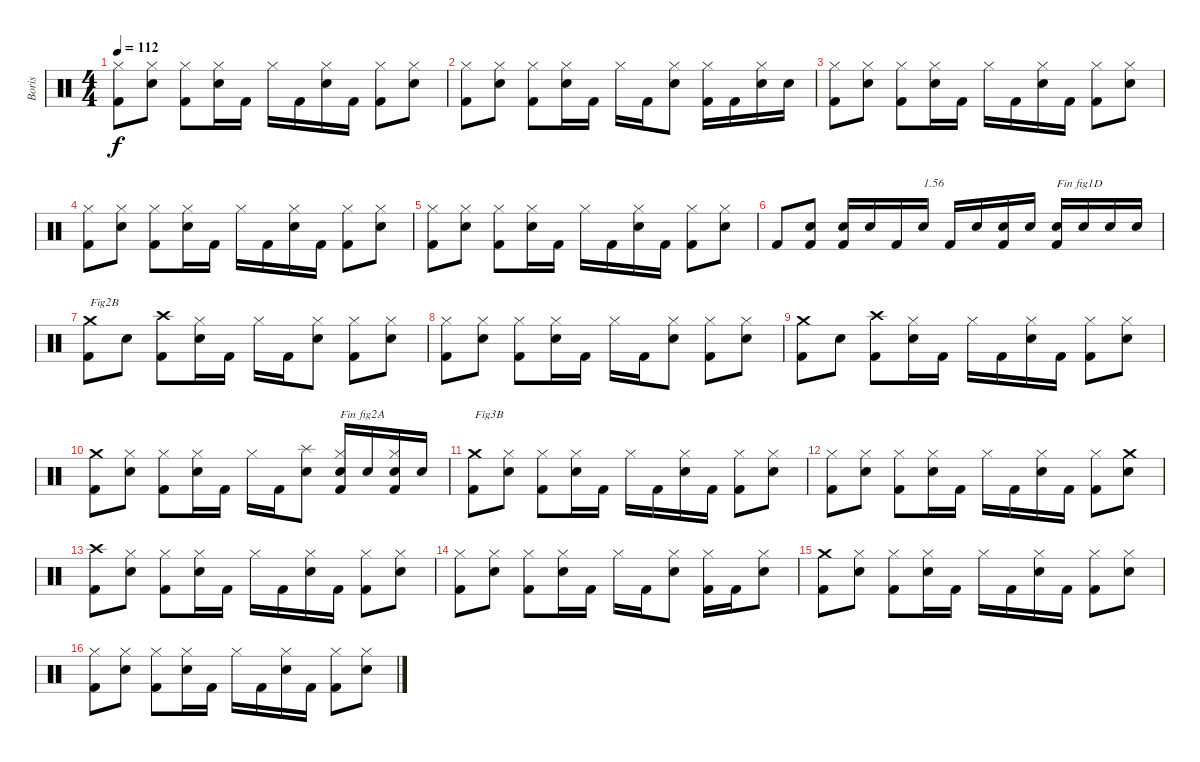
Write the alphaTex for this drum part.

\track ("Boris" "Boris") {instrument percussion}
\staff {score}
\articulation defaults
\ts (4 4)
\tempo 112
\clef neutral
\ks c
("Kick (hit) 2" "Hi-Hat (closed)").8{dy f} ("Electric Snare (hit)" "Hi-Hat (closed)").8 ("Kick (hit) 2" "Hi-Hat (closed)").8 ("Electric Snare (hit)" "Hi-Hat (closed)").16 "Kick (hit) 2".16 "Hi-Hat (closed)".16 "Kick (hit) 2".16 ("Electric Snare (hit)" "Hi-Hat (closed)").16 "Kick (hit) 2".16 ("Kick (hit) 2" "Hi-Hat (closed)").8 ("Electric Snare (hit)" "Hi-Hat (closed)").8 |
("Kick (hit) 2" "Hi-Hat (closed)").8 ("Electric Snare (hit)" "Hi-Hat (closed)").8 ("Kick (hit) 2" "Hi-Hat (closed)").8 ("Electric Snare (hit)" "Hi-Hat (closed)").16 "Kick (hit) 2".16 "Hi-Hat (closed)".16 "Kick (hit) 2".16 ("Electric Snare (hit)" "Hi-Hat (closed)").8 ("Kick (hit) 2" "Hi-Hat (closed)").16 "Kick (hit) 2".16 ("Electric Snare (hit)" "Hi-Hat (closed)").16 "Electric Snare (hit)".16 |
("Kick (hit) 2" "Hi-Hat (closed)").8 ("Electric Snare (hit)" "Hi-Hat (closed)").8 ("Kick (hit) 2" "Hi-Hat (closed)").8 ("Electric Snare (hit)" "Hi-Hat (closed)").16 "Kick (hit) 2".16 "Hi-Hat (closed)".16 "Kick (hit) 2".16 ("Electric Snare (hit)" "Hi-Hat (closed)").16 "Kick (hit) 2".16 ("Kick (hit) 2" "Hi-Hat (closed)").8 ("Electric Snare (hit)" "Hi-Hat (closed)").8 |
("Kick (hit) 2" "Hi-Hat (closed)").8 ("Electric Snare (hit)" "Hi-Hat (closed)").8 ("Kick (hit) 2" "Hi-Hat (closed)").8 ("Electric Snare (hit)" "Hi-Hat (closed)").16 "Kick (hit) 2".16 "Hi-Hat (closed)".16 "Kick (hit) 2".16 ("Electric Snare (hit)" "Hi-Hat (closed)").16 "Kick (hit) 2".16 ("Kick (hit) 2" "Hi-Hat (closed)").8 ("Electric Snare (hit)" "Hi-Hat (closed)").8 |
("Kick (hit) 2" "Hi-Hat (closed)").8 ("Electric Snare (hit)" "Hi-Hat (closed)").8 ("Kick (hit) 2" "Hi-Hat (closed)").8 ("Electric Snare (hit)" "Hi-Hat (closed)").16 "Kick (hit) 2".16 "Hi-Hat (closed)".16 "Kick (hit) 2".16 ("Electric Snare (hit)" "Hi-Hat (closed)").16 "Kick (hit) 2".16 ("Kick (hit) 2" "Hi-Hat (closed)").8 ("Electric Snare (hit)" "Hi-Hat (closed)").8 |
"Kick (hit) 2".8 ("Kick (hit) 2" "Electric Snare (hit)").8 ("Kick (hit) 2" "Electric Snare (hit)").16 "Electric Snare (hit)".16 "Kick (hit) 2".16 "Electric Snare (hit)".16{txt "1.56"} "Kick (hit) 2".16 "Electric Snare (hit)".16 ("Kick (hit) 2" "Electric Snare (hit)").16 "Electric Snare (hit)".16 ("Kick (hit) 2" "Electric Snare (hit)").16{txt "Fin fig1D"} "Electric Snare (hit)".16 "Electric Snare (hit)".16 "Electric Snare (hit)".16 |
("Kick (hit) 2" "Crash medium (hit)").8{txt "Fig2B"} "Electric Snare (hit)".8 ("Kick (hit) 2" "Crash high (hit)").8 ("Electric Snare (hit)" "Hi-Hat (closed)").16 "Kick (hit) 2".16 "Hi-Hat (closed)".16 "Kick (hit) 2".16 ("Electric Snare (hit)" "Hi-Hat (closed)").8 ("Kick (hit) 2" "Hi-Hat (closed)").8 ("Electric Snare (hit)" "Hi-Hat (closed)").8 |
("Kick (hit) 2" "Hi-Hat (closed)").8 ("Electric Snare (hit)" "Hi-Hat (closed)").8 ("Kick (hit) 2" "Hi-Hat (closed)").8 ("Electric Snare (hit)" "Hi-Hat (closed)").16 "Kick (hit) 2".16 "Hi-Hat (closed)".16 "Kick (hit) 2".16 ("Electric Snare (hit)" "Hi-Hat (closed)").8 ("Kick (hit) 2" "Hi-Hat (closed)").8 ("Electric Snare (hit)" "Hi-Hat (closed)").8 |
("Kick (hit) 2" "Crash medium (hit)").8 "Electric Snare (hit)".8 ("Kick (hit) 2" "Crash high (hit)").8 ("Electric Snare (hit)" "Hi-Hat (closed)").16 "Kick (hit) 2".16 "Hi-Hat (closed)".16 "Kick (hit) 2".16 ("Electric Snare (hit)" "Hi-Hat (closed)").16 "Kick (hit) 2".16 ("Kick (hit) 2" "Hi-Hat (closed)").8 ("Electric Snare (hit)" "Hi-Hat (closed)").8 |
("Kick (hit) 2" "Crash medium (hit)").8 ("Electric Snare (hit)" "Hi-Hat (closed)").8 ("Kick (hit) 2" "Hi-Hat (closed)").8 ("Electric Snare (hit)" "Hi-Hat (closed)").16 "Kick (hit) 2".16 "Hi-Hat (closed)".16 "Kick (hit) 2".16 ("Electric Snare (hit)" "Splash (hit)").8 ("Kick (hit) 2" "Electric Snare (hit)" "Hi-Hat (closed)").16{txt "Fin fig2A"} "Electric Snare (hit)".16 ("Kick (hit) 2" "Electric Snare (hit)" "Hi-Hat (closed)").16 "Electric Snare (hit)".16 |
("Kick (hit) 2" "Crash medium (hit)").8{txt "Fig3B"} ("Electric Snare (hit)" "Hi-Hat (closed)").8 ("Kick (hit) 2" "Hi-Hat (closed)").8 ("Electric Snare (hit)" "Hi-Hat (closed)").16 "Kick (hit) 2".16 "Hi-Hat (closed)".16 "Kick (hit) 2".16 ("Electric Snare (hit)" "Hi-Hat (closed)").16 "Kick (hit) 2".16 ("Kick (hit) 2" "Hi-Hat (closed)").8 ("Electric Snare (hit)" "Hi-Hat (closed)").8 |
("Kick (hit) 2" "Hi-Hat (closed)").8 ("Electric Snare (hit)" "Hi-Hat (closed)").8 ("Kick (hit) 2" "Hi-Hat (closed)").8 ("Electric Snare (hit)" "Hi-Hat (closed)").16 "Kick (hit) 2".16 "Hi-Hat (closed)".16 "Kick (hit) 2".16 ("Electric Snare (hit)" "Hi-Hat (closed)").16 "Kick (hit) 2".16 ("Kick (hit) 2" "Hi-Hat (closed)").8 ("Electric Snare (hit)" "Crash medium (hit)").8 |
("Kick (hit) 2" "Crash high (hit)").8 ("Electric Snare (hit)" "Hi-Hat (closed)").8 ("Kick (hit) 2" "Hi-Hat (closed)").8 ("Electric Snare (hit)" "Hi-Hat (closed)").16 "Kick (hit) 2".16 "Hi-Hat (closed)".16 "Kick (hit) 2".16 ("Electric Snare (hit)" "Hi-Hat (closed)").16 "Kick (hit) 2".16 ("Kick (hit) 2" "Hi-Hat (closed)").8 ("Electric Snare (hit)" "Hi-Hat (closed)").8 |
("Kick (hit) 2" "Hi-Hat (closed)").8 ("Electric Snare (hit)" "Hi-Hat (closed)").8 ("Kick (hit) 2" "Hi-Hat (closed)").8 ("Electric Snare (hit)" "Hi-Hat (closed)").16 "Kick (hit) 2".16 "Hi-Hat (closed)".16 "Kick (hit) 2".16 ("Electric Snare (hit)" "Hi-Hat (closed)").8 ("Kick (hit) 2" "Hi-Hat (closed)").16 "Kick (hit) 2".16 ("Electric Snare (hit)" "Hi-Hat (closed)").8 |
("Kick (hit) 2" "Crash medium (hit)").8 ("Electric Snare (hit)" "Hi-Hat (closed)").8 ("Kick (hit) 2" "Hi-Hat (closed)").8 ("Electric Snare (hit)" "Hi-Hat (closed)").16 "Kick (hit) 2".16 "Hi-Hat (closed)".16 "Kick (hit) 2".16 ("Electric Snare (hit)" "Hi-Hat (closed)").16 "Kick (hit) 2".16 ("Kick (hit) 2" "Hi-Hat (closed)").8 ("Electric Snare (hit)" "Hi-Hat (closed)").8 |
("Kick (hit) 2" "Hi-Hat (closed)").8 ("Electric Snare (hit)" "Hi-Hat (closed)").8 ("Kick (hit) 2" "Hi-Hat (closed)").8 ("Electric Snare (hit)" "Hi-Hat (closed)").16 "Kick (hit) 2".16 "Hi-Hat (closed)".16 "Kick (hit) 2".16 ("Electric Snare (hit)" "Hi-Hat (closed)").16 "Kick (hit) 2".16 ("Kick (hit) 2" "Hi-Hat (closed)").8 ("Electric Snare (hit)" "Hi-Hat (closed)").8
